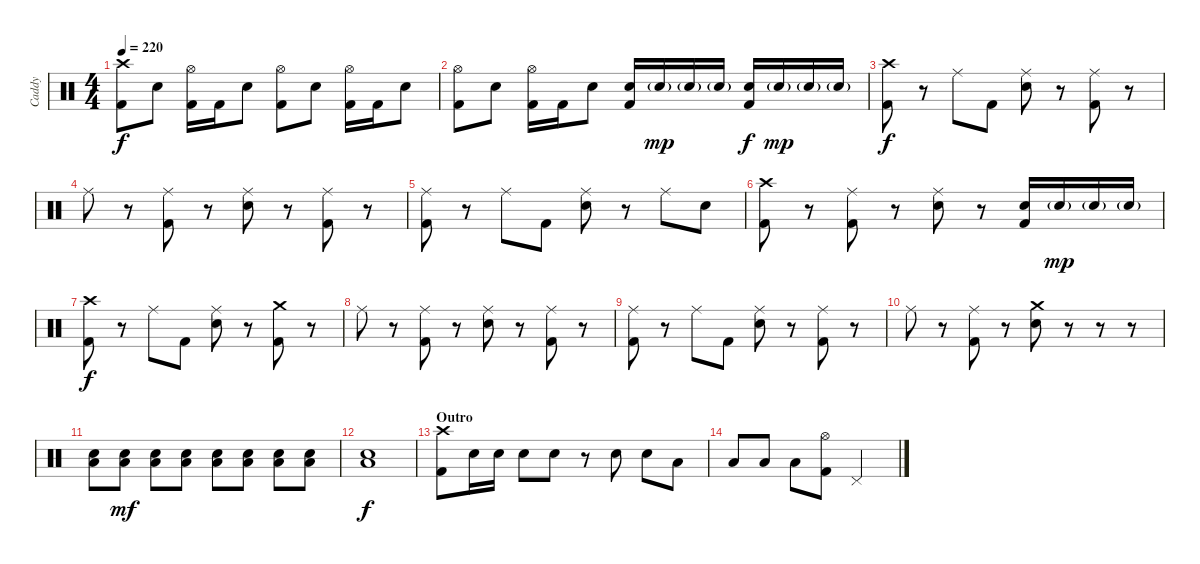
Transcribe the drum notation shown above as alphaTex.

\track ("Caddy" "Caddy") {instrument percussion}
\staff {score}
\articulation defaults
\ts (4 4)
\tempo 220
\clef neutral
\ks c
("Crash high (hit)" "Kick (hit) 2").8{dy f} "Electric Snare (hit)".8 ("Hi-Hat (open)" "Kick (hit) 2").16 "Kick (hit) 2".16 "Electric Snare (hit)".8 ("Hi-Hat (open)" "Kick (hit) 2").8 "Electric Snare (hit)".8 ("Hi-Hat (open)" "Kick (hit) 2").16 "Kick (hit) 2".16 "Electric Snare (hit)".8 |
("Hi-Hat (open)" "Kick (hit) 2").8 "Electric Snare (hit)".8 ("Hi-Hat (open)" "Kick (hit) 2").16 "Kick (hit) 2".16 "Electric Snare (hit)".8 ("Electric Snare (hit)" "Kick (hit) 2").16 "Electric Snare (hit)"{g}.16{dy mp} "Electric Snare (hit)"{g}.16 "Electric Snare (hit)"{g}.16 ("Electric Snare (hit)" "Kick (hit) 2").16{dy f} "Electric Snare (hit)"{g}.16{dy mp} "Electric Snare (hit)"{g}.16 "Electric Snare (hit)"{g}.16 |
("Crash high (hit)" "Kick (hit) 2").8{dy f} r.8 "Ride (middle)".8 "Kick (hit) 2".8 ("Ride (middle)" "Electric Snare (hit)").8 r.8 ("Ride (middle)" "Kick (hit) 2").8 r.8 |
"Ride (middle)".8 r.8 ("Ride (middle)" "Kick (hit) 2").8 r.8 ("Ride (middle)" "Electric Snare (hit)").8 r.8 ("Ride (middle)" "Kick (hit) 2").8 r.8 |
("Ride (middle)" "Kick (hit) 2").8 r.8 "Ride (middle)".8 "Kick (hit) 2".8 ("Ride (middle)" "Electric Snare (hit)").8 r.8 "Ride (middle)".8 "Electric Snare (hit)".8 |
("Crash high (hit)" "Kick (hit) 2").8 r.8 ("Ride (middle)" "Kick (hit) 2").8 r.8 ("Ride (middle)" "Electric Snare (hit)").8 r.8 ("Electric Snare (hit)" "Kick (hit) 2").16 "Electric Snare (hit)"{g}.16{dy mp} "Electric Snare (hit)"{g}.16 "Electric Snare (hit)"{g}.16 |
("Crash high (hit)" "Kick (hit) 2").8{dy f} r.8 "Ride (middle)".8 "Kick (hit) 2".8 ("Ride (middle)" "Electric Snare (hit)").8 r.8 ("Crash medium (hit)" "Kick (hit) 2").8 r.8 |
"Ride (middle)".8 r.8 ("Ride (middle)" "Kick (hit) 2").8 r.8 ("Ride (middle)" "Electric Snare (hit)").8 r.8 ("Ride (middle)" "Kick (hit) 2").8 r.8 |
("Ride (middle)" "Kick (hit) 2").8 r.8 "Ride (middle)".8 "Kick (hit) 2".8 ("Ride (middle)" "Electric Snare (hit)").8 r.8 ("Ride (middle)" "Kick (hit) 2").8 r.8 |
"Ride (middle)".8 r.8 ("Ride (middle)" "Kick (hit) 2").8 r.8 ("Crash medium (hit)" "Electric Snare (hit)").8 r.8 r.8 r.8 |
("Electric Snare (hit)" "Low Floor Tom (hit)").8 ("Electric Snare (hit)" "Low Floor Tom (hit)").8{dy mf} ("Electric Snare (hit)" "Low Floor Tom (hit)").8 ("Electric Snare (hit)" "Low Floor Tom (hit)").8 ("Electric Snare (hit)" "Low Floor Tom (hit)").8 ("Electric Snare (hit)" "Low Floor Tom (hit)").8 ("Electric Snare (hit)" "Low Floor Tom (hit)").8 ("Electric Snare (hit)" "Low Floor Tom (hit)").8 |
("Electric Snare (hit)" "Low Floor Tom (hit)").1{dy f} |
\section ("" "Outro")
("Crash high (hit)" "Kick (hit) 2").8 "Electric Snare (hit)".16 "Electric Snare (hit)".16 "Electric Snare (hit)".8 "Electric Snare (hit)".8 r.8 "Electric Snare (hit)".8 "Electric Snare (hit)".8 "Low Tom (hit)".8 |
"Low Tom (hit)".8 "Low Floor Tom (hit)".8 "Low Floor Tom (hit)".8 ("Hi-Hat (open)" "Kick (hit) 2").8 "Pedal Hi-Hat (hit)".2
